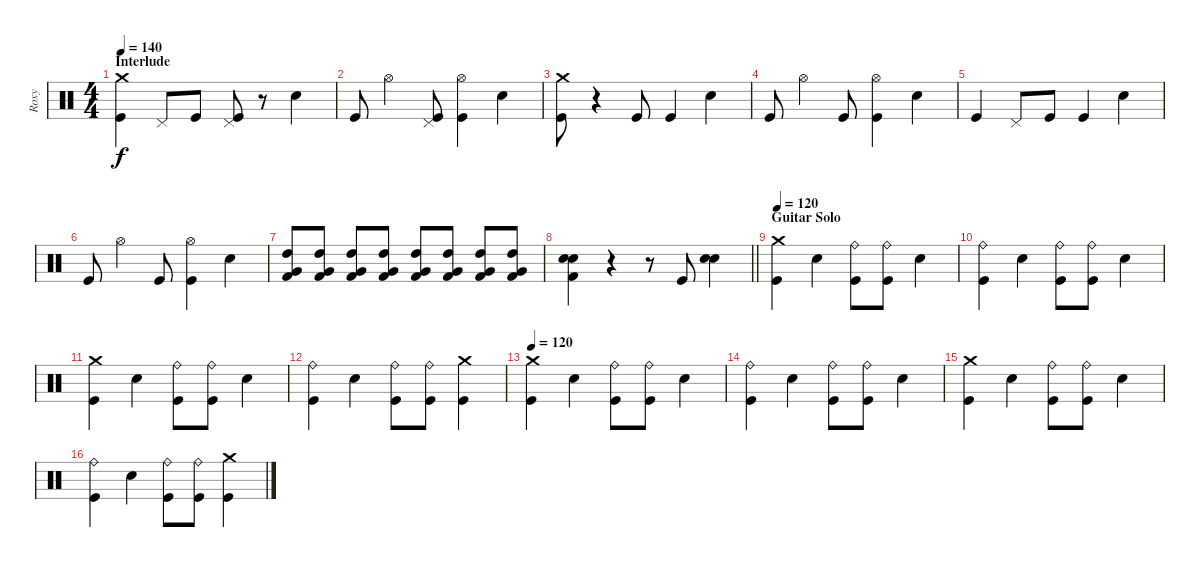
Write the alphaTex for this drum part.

\track ("Roxy" "Roxy") {instrument percussion}
\staff {score}
\articulation defaults
\ts (4 4)
\section ("" "Interlude")
\tempo 140
\clef neutral
\ks c
("Crash medium (hit)" "Kick (hit)").4{dy f} "Pedal Hi-Hat (hit)".8 "Kick (hit)".8 ("Pedal Hi-Hat (hit)" "Kick (hit)").8 r.8 "Electric Snare (hit)".4 |
"Kick (hit)".8 "Hi-Hat (open)".4 ("Pedal Hi-Hat (hit)" "Kick (hit)").8 ("Hi-Hat (open)" "Kick (hit)").4 "Electric Snare (hit)".4 |
("Crash medium (hit)" "Kick (hit)").8 r.4 "Kick (hit)".8 "Kick (hit)".4 "Electric Snare (hit)".4 |
"Kick (hit)".8 "Hi-Hat (open)".4 "Kick (hit)".8 ("Hi-Hat (open)" "Kick (hit)").4 "Electric Snare (hit)".4 |
"Kick (hit)".4 "Pedal Hi-Hat (hit)".8 "Kick (hit)".8 "Kick (hit)".4 "Electric Snare (hit)".4 |
"Kick (hit)".8 "Hi-Hat (open)".4 "Kick (hit)".8 ("Hi-Hat (open)" "Kick (hit)").4 "Electric Snare (hit)".4 |
("High Tom (hit)" "Very Low Tom (hit)" "Kick (hit) 2").8 ("High Tom (hit)" "Very Low Tom (hit)" "Kick (hit) 2").8 ("High Tom (hit)" "Very Low Tom (hit)" "Kick (hit) 2").8 ("High Tom (hit)" "Very Low Tom (hit)" "Kick (hit) 2").8 ("High Tom (hit)" "Very Low Tom (hit)" "Kick (hit) 2").8 ("High Tom (hit)" "Very Low Tom (hit)" "Kick (hit) 2").8 ("High Tom (hit)" "Very Low Tom (hit)" "Kick (hit) 2").8 ("High Tom (hit)" "Very Low Tom (hit)" "Kick (hit) 2").8 |
\barLineRight lightlight
("Snare (hit) 2" "Electric Snare (hit)" "Kick (hit) 2").4 r.4 r.8 "Kick (hit)".8 ("Electric Snare (hit)" "Snare (hit) 2").4 |
\section ("" "Guitar Solo")
\tempo 120
("Crash medium (hit)" "Kick (hit)").4 "Electric Snare (hit)".4 ("Ride (bell)" "Kick (hit)").8 ("Ride (bell)" "Kick (hit)").8 "Electric Snare (hit)".4 |
("Ride (bell)" "Kick (hit)").4 "Electric Snare (hit)".4 ("Ride (bell)" "Kick (hit)").8 ("Ride (bell)" "Kick (hit)").8 "Electric Snare (hit)".4 |
("Crash medium (hit)" "Kick (hit)").4 "Electric Snare (hit)".4 ("Ride (bell)" "Kick (hit)").8 ("Ride (bell)" "Kick (hit)").8 "Electric Snare (hit)".4 |
("Ride (bell)" "Kick (hit)").4 "Electric Snare (hit)".4 ("Ride (bell)" "Kick (hit)").8 ("Ride (bell)" "Kick (hit)").8 ("Crash medium (hit)" "Kick (hit)").4 |
\tempo 120
("Crash medium (hit)" "Kick (hit)").4 "Electric Snare (hit)".4 ("Ride (bell)" "Kick (hit)").8 ("Ride (bell)" "Kick (hit)").8 "Electric Snare (hit)".4 |
("Ride (bell)" "Kick (hit)").4 "Electric Snare (hit)".4 ("Ride (bell)" "Kick (hit)").8 ("Ride (bell)" "Kick (hit)").8 "Electric Snare (hit)".4 |
("Crash medium (hit)" "Kick (hit)").4 "Electric Snare (hit)".4 ("Ride (bell)" "Kick (hit)").8 ("Ride (bell)" "Kick (hit)").8 "Electric Snare (hit)".4 |
("Ride (bell)" "Kick (hit)").4 "Electric Snare (hit)".4 ("Ride (bell)" "Kick (hit)").8 ("Ride (bell)" "Kick (hit)").8 ("Crash medium (hit)" "Kick (hit)").4
